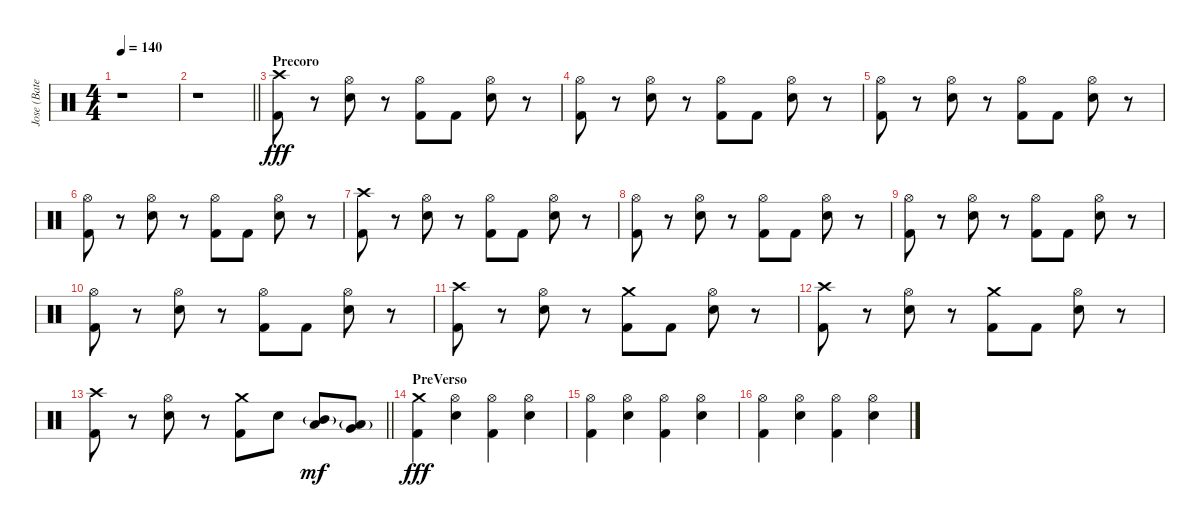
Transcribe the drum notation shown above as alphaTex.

\track ("Jose (Bateria)" "Jose (Bate") {instrument percussion}
\staff {score}
\articulation defaults
\ts (4 4)
\tempo 140
\clef neutral
\ks aminor
r.1{dy fff} |
\barLineRight lightlight
r.1 |
\section ("" "Precoro")
("Crash high (hit)" "Kick (hit) 2").8 r.8 ("Hi-Hat (open)" "Snare (hit) 2").8 r.8 ("Hi-Hat (open)" "Kick (hit) 2").8 "Kick (hit) 2".8 ("Hi-Hat (open)" "Snare (hit) 2").8 r.8 |
("Hi-Hat (open)" "Kick (hit) 2").8 r.8 ("Hi-Hat (open)" "Snare (hit) 2").8 r.8 ("Hi-Hat (open)" "Kick (hit) 2").8 "Kick (hit) 2".8 ("Hi-Hat (open)" "Snare (hit) 2").8 r.8 |
("Hi-Hat (open)" "Kick (hit) 2").8 r.8 ("Hi-Hat (open)" "Snare (hit) 2").8 r.8 ("Hi-Hat (open)" "Kick (hit) 2").8 "Kick (hit) 2".8 ("Hi-Hat (open)" "Snare (hit) 2").8 r.8 |
("Hi-Hat (open)" "Kick (hit) 2").8 r.8 ("Hi-Hat (open)" "Snare (hit) 2").8 r.8 ("Hi-Hat (open)" "Kick (hit) 2").8 "Kick (hit) 2".8 ("Hi-Hat (open)" "Snare (hit) 2").8 r.8 |
("Crash high (hit)" "Kick (hit) 2").8 r.8 ("Hi-Hat (open)" "Snare (hit) 2").8 r.8 ("Hi-Hat (open)" "Kick (hit) 2").8 "Kick (hit) 2".8 ("Hi-Hat (open)" "Snare (hit) 2").8 r.8 |
("Hi-Hat (open)" "Kick (hit) 2").8 r.8 ("Hi-Hat (open)" "Snare (hit) 2").8 r.8 ("Hi-Hat (open)" "Kick (hit) 2").8 "Kick (hit) 2".8 ("Hi-Hat (open)" "Snare (hit) 2").8 r.8 |
("Hi-Hat (open)" "Kick (hit) 2").8 r.8 ("Hi-Hat (open)" "Snare (hit) 2").8 r.8 ("Hi-Hat (open)" "Kick (hit) 2").8 "Kick (hit) 2".8 ("Hi-Hat (open)" "Snare (hit) 2").8 r.8 |
("Hi-Hat (open)" "Kick (hit) 2").8 r.8 ("Hi-Hat (open)" "Snare (hit) 2").8 r.8 ("Hi-Hat (open)" "Kick (hit) 2").8 "Kick (hit) 2".8 ("Hi-Hat (open)" "Snare (hit) 2").8 r.8 |
("Crash high (hit)" "Kick (hit) 2").8 r.8 ("Hi-Hat (open)" "Snare (hit) 2").8 r.8 ("Crash medium (hit)" "Kick (hit) 2").8 "Kick (hit) 2".8 ("Hi-Hat (open)" "Snare (hit) 2").8 r.8 |
("Crash high (hit)" "Kick (hit) 2").8 r.8 ("Hi-Hat (open)" "Snare (hit) 2").8 r.8 ("Crash medium (hit)" "Kick (hit) 2").8 "Kick (hit) 2".8 ("Hi-Hat (open)" "Snare (hit) 2").8 r.8 |
\barLineRight lightlight
("Crash high (hit)" "Kick (hit) 2").8 r.8 ("Hi-Hat (open)" "Snare (hit) 2").8 r.8 ("Crash medium (hit)" "Kick (hit) 2").8 "Snare (hit) 2".8 ("Low Tom (hit)" "Mid Tom (hit)"{g}).8{dy mf} ("Very Low Tom (hit)" "Low Tom (hit)"{g}).8 |
\section ("" "PreVerso")
("Crash medium (hit)" "Kick (hit) 2").4{dy fff} ("Hi-Hat (open)" "Snare (hit) 2").4 ("Hi-Hat (open)" "Kick (hit) 2").4 ("Hi-Hat (open)" "Snare (hit) 2").4 |
("Hi-Hat (open)" "Kick (hit) 2").4 ("Hi-Hat (open)" "Snare (hit) 2").4 ("Hi-Hat (open)" "Kick (hit) 2").4 ("Hi-Hat (open)" "Snare (hit) 2").4 |
("Hi-Hat (open)" "Kick (hit) 2").4 ("Hi-Hat (open)" "Snare (hit) 2").4 ("Hi-Hat (open)" "Kick (hit) 2").4 ("Hi-Hat (open)" "Snare (hit) 2").4
